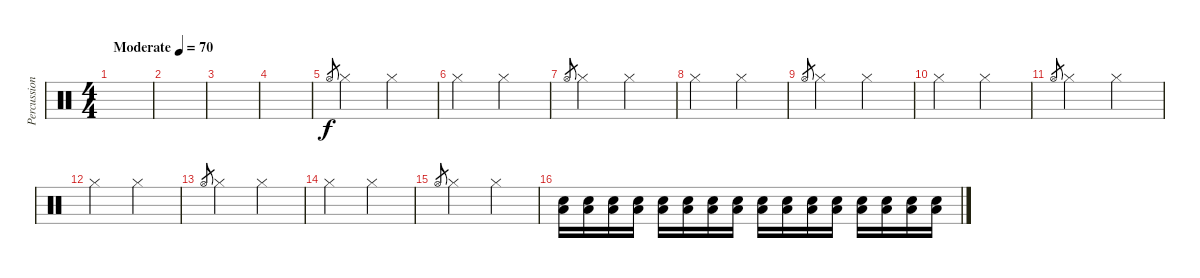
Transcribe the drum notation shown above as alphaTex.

\track ("Percussioni" "Percussion") {instrument percussion}
\staff {score}
\articulation defaults
\ts (4 4)
\tempo (70 "Moderate")
\clef neutral
\ks c
|
|
|
|
"Hi-Hat (open)".8{gr} "Hi-Hat (closed)".2 "Hi-Hat (closed)".2 |
"Hi-Hat (closed)".2 "Hi-Hat (closed)".2 |
"Hi-Hat (open)".8{gr} "Hi-Hat (closed)".2 "Hi-Hat (closed)".2 |
"Hi-Hat (closed)".2 "Hi-Hat (closed)".2 |
"Hi-Hat (open)".8{gr} "Hi-Hat (closed)".2 "Hi-Hat (closed)".2 |
"Hi-Hat (closed)".2 "Hi-Hat (closed)".2 |
"Hi-Hat (open)".8{gr} "Hi-Hat (closed)".2 "Hi-Hat (closed)".2 |
"Hi-Hat (closed)".2 "Hi-Hat (closed)".2 |
"Hi-Hat (open)".8{gr} "Hi-Hat (closed)".2 "Hi-Hat (closed)".2 |
"Hi-Hat (closed)".2 "Hi-Hat (closed)".2 |
"Hi-Hat (open)".8{gr} "Hi-Hat (closed)".2 "Hi-Hat (closed)".2 |
("Snare (hit) 2" "Low Floor Tom (hit)").16 ("Snare (hit) 2" "Low Floor Tom (hit)").16 ("Snare (hit) 2" "Low Floor Tom (hit)").16 ("Snare (hit) 2" "Low Floor Tom (hit)").16 ("Snare (hit) 2" "Low Floor Tom (hit)").16 ("Snare (hit) 2" "Low Floor Tom (hit)").16 ("Snare (hit) 2" "Low Floor Tom (hit)").16 ("Snare (hit) 2" "Low Floor Tom (hit)").16 ("Snare (hit) 2" "Low Floor Tom (hit)").16 ("Snare (hit) 2" "Low Floor Tom (hit)").16 ("Snare (hit) 2" "Low Floor Tom (hit)").16 ("Snare (hit) 2" "Low Floor Tom (hit)").16 ("Snare (hit) 2" "Low Floor Tom (hit)").16 ("Snare (hit) 2" "Low Floor Tom (hit)").16 ("Snare (hit) 2" "Low Floor Tom (hit)").16 ("Snare (hit) 2" "Low Floor Tom (hit)").16
